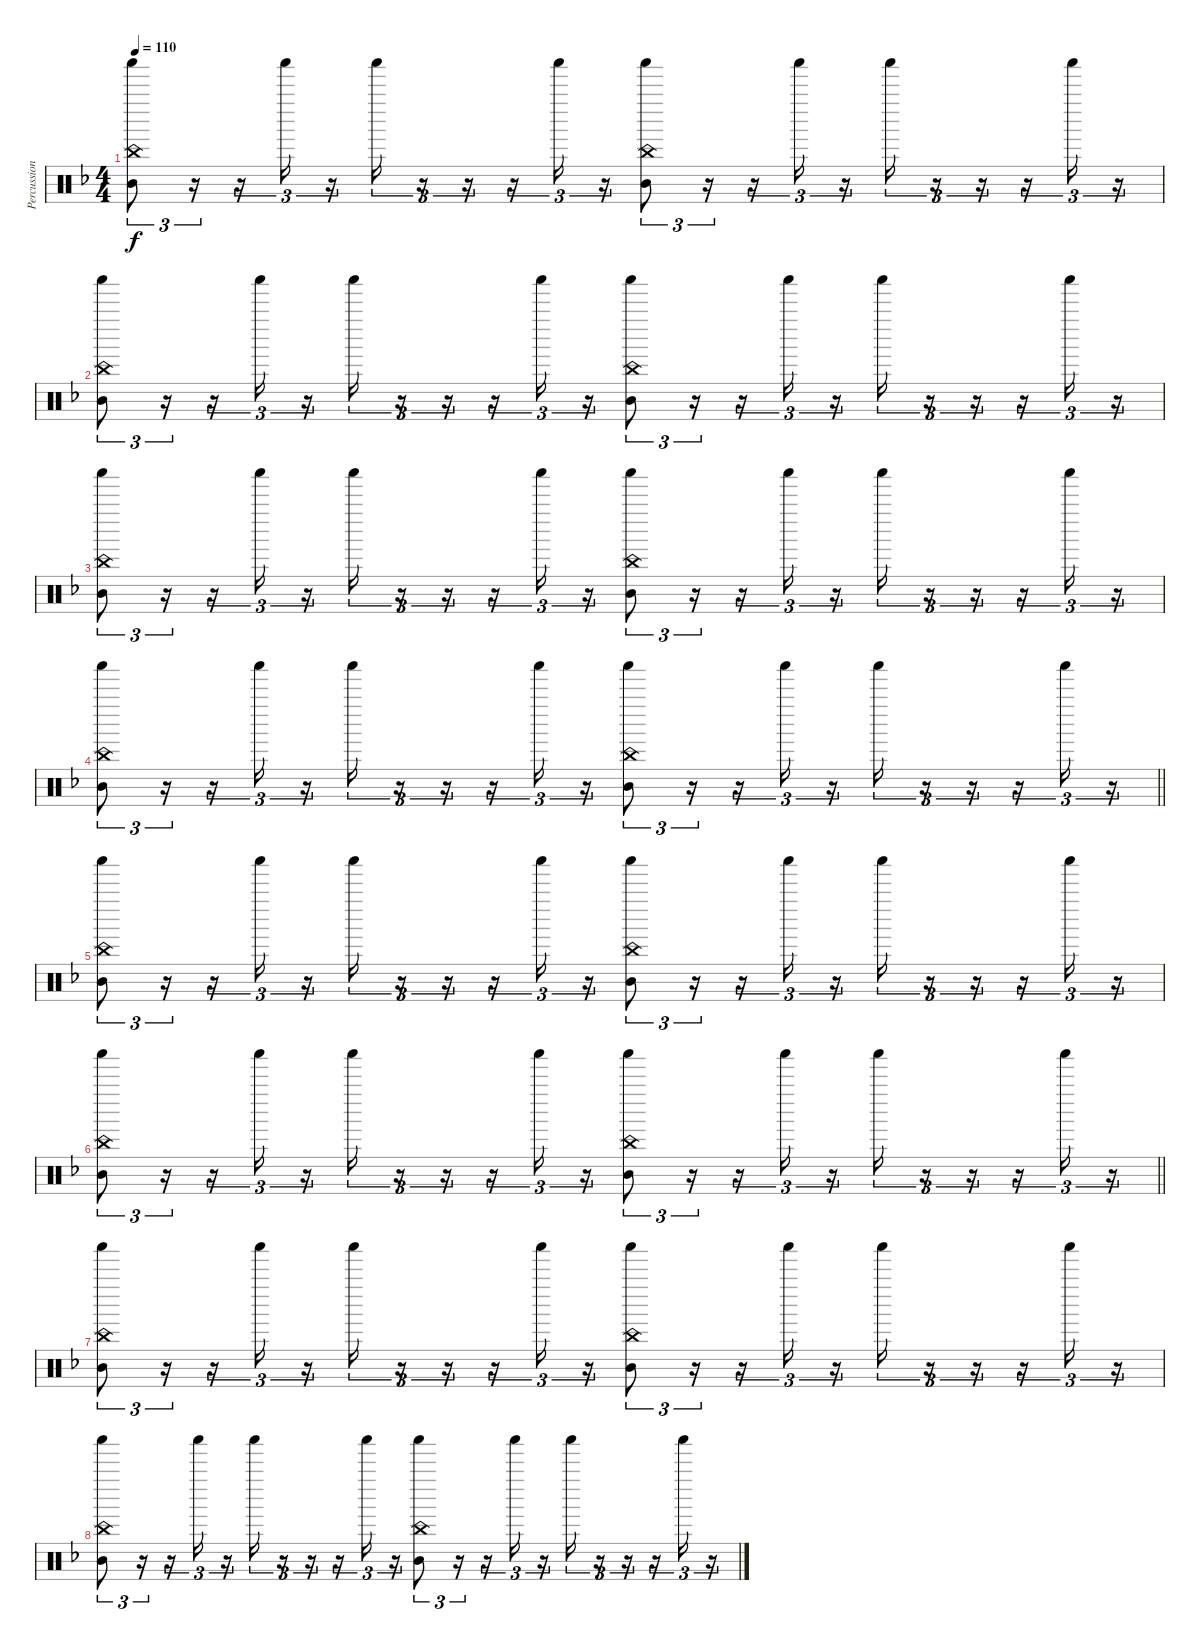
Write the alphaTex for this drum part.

\track ("Percussion" "Percussion") {instrument percussion}
\staff {score}
\articulation defaults
\ts (4 4)
\tempo 110
\clef neutral
\ks f
("Mid Tom (hit)" "China (hit)" "Shaker (hit)").8{tu (3 2) dy f} r.16{tu (3 2)} r.16{tu (3 2)} "Shaker (hit)".16{tu (3 2)} r.16{tu (3 2)} "Shaker (hit)".16{tu (3 2)} r.16{tu (3 2)} r.16{tu (3 2)} r.16{tu (3 2)} "Shaker (hit)".16{tu (3 2)} r.16{tu (3 2)} ("Mid Tom (hit)" "China (hit)" "Shaker (hit)").8{tu (3 2)} r.16{tu (3 2)} r.16{tu (3 2)} "Shaker (hit)".16{tu (3 2)} r.16{tu (3 2)} "Shaker (hit)".16{tu (3 2)} r.16{tu (3 2)} r.16{tu (3 2)} r.16{tu (3 2)} "Shaker (hit)".16{tu (3 2)} r.16{tu (3 2)} |
("Mid Tom (hit)" "China (hit)" "Shaker (hit)").8{tu (3 2)} r.16{tu (3 2)} r.16{tu (3 2)} "Shaker (hit)".16{tu (3 2)} r.16{tu (3 2)} "Shaker (hit)".16{tu (3 2)} r.16{tu (3 2)} r.16{tu (3 2)} r.16{tu (3 2)} "Shaker (hit)".16{tu (3 2)} r.16{tu (3 2)} ("Mid Tom (hit)" "China (hit)" "Shaker (hit)").8{tu (3 2)} r.16{tu (3 2)} r.16{tu (3 2)} "Shaker (hit)".16{tu (3 2)} r.16{tu (3 2)} "Shaker (hit)".16{tu (3 2)} r.16{tu (3 2)} r.16{tu (3 2)} r.16{tu (3 2)} "Shaker (hit)".16{tu (3 2)} r.16{tu (3 2)} |
("Mid Tom (hit)" "China (hit)" "Shaker (hit)").8{tu (3 2)} r.16{tu (3 2)} r.16{tu (3 2)} "Shaker (hit)".16{tu (3 2)} r.16{tu (3 2)} "Shaker (hit)".16{tu (3 2)} r.16{tu (3 2)} r.16{tu (3 2)} r.16{tu (3 2)} "Shaker (hit)".16{tu (3 2)} r.16{tu (3 2)} ("Mid Tom (hit)" "China (hit)" "Shaker (hit)").8{tu (3 2)} r.16{tu (3 2)} r.16{tu (3 2)} "Shaker (hit)".16{tu (3 2)} r.16{tu (3 2)} "Shaker (hit)".16{tu (3 2)} r.16{tu (3 2)} r.16{tu (3 2)} r.16{tu (3 2)} "Shaker (hit)".16{tu (3 2)} r.16{tu (3 2)} |
\barLineRight lightlight
("Mid Tom (hit)" "China (hit)" "Shaker (hit)").8{tu (3 2)} r.16{tu (3 2)} r.16{tu (3 2)} "Shaker (hit)".16{tu (3 2)} r.16{tu (3 2)} "Shaker (hit)".16{tu (3 2)} r.16{tu (3 2)} r.16{tu (3 2)} r.16{tu (3 2)} "Shaker (hit)".16{tu (3 2)} r.16{tu (3 2)} ("Mid Tom (hit)" "China (hit)" "Shaker (hit)").8{tu (3 2)} r.16{tu (3 2)} r.16{tu (3 2)} "Shaker (hit)".16{tu (3 2)} r.16{tu (3 2)} "Shaker (hit)".16{tu (3 2)} r.16{tu (3 2)} r.16{tu (3 2)} r.16{tu (3 2)} "Shaker (hit)".16{tu (3 2)} r.16{tu (3 2)} |
\section ("" "")
("Mid Tom (hit)" "China (hit)" "Shaker (hit)").8{tu (3 2)} r.16{tu (3 2)} r.16{tu (3 2)} "Shaker (hit)".16{tu (3 2)} r.16{tu (3 2)} "Shaker (hit)".16{tu (3 2)} r.16{tu (3 2)} r.16{tu (3 2)} r.16{tu (3 2)} "Shaker (hit)".16{tu (3 2)} r.16{tu (3 2)} ("Mid Tom (hit)" "China (hit)" "Shaker (hit)").8{tu (3 2)} r.16{tu (3 2)} r.16{tu (3 2)} "Shaker (hit)".16{tu (3 2)} r.16{tu (3 2)} "Shaker (hit)".16{tu (3 2)} r.16{tu (3 2)} r.16{tu (3 2)} r.16{tu (3 2)} "Shaker (hit)".16{tu (3 2)} r.16{tu (3 2)} |
\barLineRight lightlight
("Mid Tom (hit)" "China (hit)" "Shaker (hit)").8{tu (3 2)} r.16{tu (3 2)} r.16{tu (3 2)} "Shaker (hit)".16{tu (3 2)} r.16{tu (3 2)} "Shaker (hit)".16{tu (3 2)} r.16{tu (3 2)} r.16{tu (3 2)} r.16{tu (3 2)} "Shaker (hit)".16{tu (3 2)} r.16{tu (3 2)} ("Mid Tom (hit)" "China (hit)" "Shaker (hit)").8{tu (3 2)} r.16{tu (3 2)} r.16{tu (3 2)} "Shaker (hit)".16{tu (3 2)} r.16{tu (3 2)} "Shaker (hit)".16{tu (3 2)} r.16{tu (3 2)} r.16{tu (3 2)} r.16{tu (3 2)} "Shaker (hit)".16{tu (3 2)} r.16{tu (3 2)} |
("Mid Tom (hit)" "China (hit)" "Shaker (hit)").8{tu (3 2)} r.16{tu (3 2)} r.16{tu (3 2)} "Shaker (hit)".16{tu (3 2)} r.16{tu (3 2)} "Shaker (hit)".16{tu (3 2)} r.16{tu (3 2)} r.16{tu (3 2)} r.16{tu (3 2)} "Shaker (hit)".16{tu (3 2)} r.16{tu (3 2)} ("Mid Tom (hit)" "China (hit)" "Shaker (hit)").8{tu (3 2)} r.16{tu (3 2)} r.16{tu (3 2)} "Shaker (hit)".16{tu (3 2)} r.16{tu (3 2)} "Shaker (hit)".16{tu (3 2)} r.16{tu (3 2)} r.16{tu (3 2)} r.16{tu (3 2)} "Shaker (hit)".16{tu (3 2)} r.16{tu (3 2)} |
("Mid Tom (hit)" "China (hit)" "Shaker (hit)").8{tu (3 2)} r.16{tu (3 2)} r.16{tu (3 2)} "Shaker (hit)".16{tu (3 2)} r.16{tu (3 2)} "Shaker (hit)".16{tu (3 2)} r.16{tu (3 2)} r.16{tu (3 2)} r.16{tu (3 2)} "Shaker (hit)".16{tu (3 2)} r.16{tu (3 2)} ("Mid Tom (hit)" "China (hit)" "Shaker (hit)").8{tu (3 2)} r.16{tu (3 2)} r.16{tu (3 2)} "Shaker (hit)".16{tu (3 2)} r.16{tu (3 2)} "Shaker (hit)".16{tu (3 2)} r.16{tu (3 2)} r.16{tu (3 2)} r.16{tu (3 2)} "Shaker (hit)".16{tu (3 2)} r.16{tu (3 2)}
